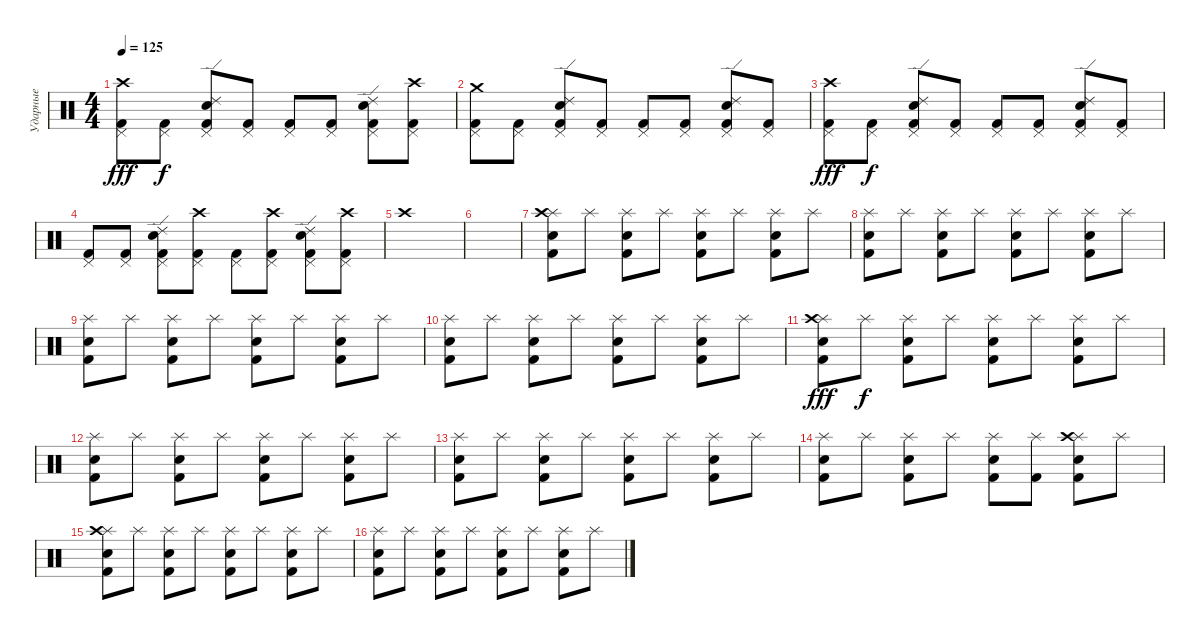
\track ("Ударные" "Ударные") {instrument percussion}
\staff {score}
\articulation defaults
\ts (4 4)
\tempo 125
\clef neutral
\ks c
("Crash high (hit)" "Pedal Hi-Hat (hit)" "Kick (hit) 2").8{dy fff} ("Pedal Hi-Hat (hit)" "Kick (hit) 2").8{dy f} ("Electric Snare (hit)" "Ride (edge) 2" "Pedal Hi-Hat (hit)" "Kick (hit) 2").8 ("Pedal Hi-Hat (hit)" "Kick (hit) 2").8 ("Pedal Hi-Hat (hit)" "Kick (hit) 2").8 ("Pedal Hi-Hat (hit)" "Kick (hit) 2").8 ("Electric Snare (hit)" "Ride (edge) 2" "Pedal Hi-Hat (hit)" "Kick (hit) 2").8 ("Crash high (hit)" "Pedal Hi-Hat (hit)" "Kick (hit) 2").8 |
("Crash medium (hit)" "Pedal Hi-Hat (hit)" "Kick (hit) 2").8 ("Pedal Hi-Hat (hit)" "Kick (hit) 2").8 ("Electric Snare (hit)" "Ride (edge) 2" "Pedal Hi-Hat (hit)" "Kick (hit) 2").8 ("Pedal Hi-Hat (hit)" "Kick (hit) 2").8 ("Pedal Hi-Hat (hit)" "Kick (hit) 2").8 ("Pedal Hi-Hat (hit)" "Kick (hit) 2").8 ("Electric Snare (hit)" "Ride (edge) 2" "Pedal Hi-Hat (hit)" "Kick (hit) 2").8 ("Pedal Hi-Hat (hit)" "Kick (hit) 2").8 |
("Crash high (hit)" "Pedal Hi-Hat (hit)" "Kick (hit) 2").8{dy fff} ("Pedal Hi-Hat (hit)" "Kick (hit) 2").8{dy f} ("Electric Snare (hit)" "Ride (edge) 2" "Pedal Hi-Hat (hit)" "Kick (hit) 2").8 ("Pedal Hi-Hat (hit)" "Kick (hit) 2").8 ("Pedal Hi-Hat (hit)" "Kick (hit) 2").8 ("Pedal Hi-Hat (hit)" "Kick (hit) 2").8 ("Electric Snare (hit)" "Ride (edge) 2" "Pedal Hi-Hat (hit)" "Kick (hit) 2").8 ("Pedal Hi-Hat (hit)" "Kick (hit) 2").8 |
("Pedal Hi-Hat (hit)" "Kick (hit) 2").8 ("Pedal Hi-Hat (hit)" "Kick (hit) 2").8 ("Electric Snare (hit)" "Ride (edge) 2" "Pedal Hi-Hat (hit)" "Kick (hit) 2").8 ("Crash high (hit)" "Pedal Hi-Hat (hit)" "Kick (hit) 2").8 ("Pedal Hi-Hat (hit)" "Kick (hit) 2").8 ("Crash high (hit)" "Pedal Hi-Hat (hit)" "Kick (hit) 2").8 ("Electric Snare (hit)" "Ride (edge) 2" "Pedal Hi-Hat (hit)" "Kick (hit) 2").8 ("Crash high (hit)" "Pedal Hi-Hat (hit)" "Kick (hit) 2").8 |
"Crash high (hit)".1 |
|
("Snare (hit) 2" "Splash (hit)" "Crash high (hit)" "Kick (hit) 2").8{volume 16} "Splash (hit)".8 ("Electric Snare (hit)" "Splash (hit)" "Kick (hit) 2").8 "Splash (hit)".8 ("Snare (hit) 2" "Splash (hit)" "Kick (hit) 2").8 "Splash (hit)".8 ("Electric Snare (hit)" "Splash (hit)" "Kick (hit) 2").8 "Splash (hit)".8 |
("Snare (hit) 2" "Splash (hit)" "Kick (hit) 2").8 "Splash (hit)".8 ("Electric Snare (hit)" "Splash (hit)" "Kick (hit) 2").8 "Splash (hit)".8 ("Snare (hit) 2" "Splash (hit)" "Kick (hit) 2").8 "Splash (hit)".8 ("Electric Snare (hit)" "Splash (hit)" "Kick (hit) 2").8 "Splash (hit)".8 |
("Snare (hit) 2" "Splash (hit)" "Kick (hit) 2").8 "Splash (hit)".8 ("Electric Snare (hit)" "Splash (hit)" "Kick (hit) 2").8 "Splash (hit)".8 ("Snare (hit) 2" "Splash (hit)" "Kick (hit) 2").8 "Splash (hit)".8 ("Electric Snare (hit)" "Splash (hit)" "Kick (hit) 2").8 "Splash (hit)".8 |
("Snare (hit) 2" "Splash (hit)" "Kick (hit) 2").8 "Splash (hit)".8 ("Electric Snare (hit)" "Splash (hit)" "Kick (hit) 2").8 "Splash (hit)".8 ("Snare (hit) 2" "Splash (hit)" "Kick (hit) 2").8 "Splash (hit)".8 ("Electric Snare (hit)" "Splash (hit)" "Kick (hit) 2").8 "Splash (hit)".8 |
("Snare (hit) 2" "Splash (hit)" "Crash high (hit)" "Kick (hit) 2").8{dy fff} "Splash (hit)".8{dy f} ("Electric Snare (hit)" "Splash (hit)" "Kick (hit) 2").8 "Splash (hit)".8 ("Snare (hit) 2" "Splash (hit)" "Kick (hit) 2").8 "Splash (hit)".8 ("Electric Snare (hit)" "Splash (hit)" "Kick (hit) 2").8 "Splash (hit)".8 |
("Snare (hit) 2" "Splash (hit)" "Kick (hit) 2").8 "Splash (hit)".8 ("Electric Snare (hit)" "Splash (hit)" "Kick (hit) 2").8 "Splash (hit)".8 ("Snare (hit) 2" "Splash (hit)" "Kick (hit) 2").8 "Splash (hit)".8 ("Electric Snare (hit)" "Splash (hit)" "Kick (hit) 2").8 "Splash (hit)".8 |
("Snare (hit) 2" "Splash (hit)" "Kick (hit) 2").8 "Splash (hit)".8 ("Electric Snare (hit)" "Splash (hit)" "Kick (hit) 2").8 "Splash (hit)".8 ("Snare (hit) 2" "Splash (hit)" "Kick (hit) 2").8 "Splash (hit)".8 ("Electric Snare (hit)" "Splash (hit)" "Kick (hit) 2").8 "Splash (hit)".8 |
("Snare (hit) 2" "Splash (hit)" "Kick (hit) 2").8 "Splash (hit)".8 ("Electric Snare (hit)" "Splash (hit)" "Kick (hit) 2").8 "Splash (hit)".8 ("Snare (hit) 2" "Splash (hit)" "Kick (hit) 2").8 ("Splash (hit)" "Kick (hit) 2").8 ("Electric Snare (hit)" "Splash (hit)" "Crash high (hit)" "Kick (hit) 2").8 "Splash (hit)".8 |
("Snare (hit) 2" "Splash (hit)" "Crash high (hit)" "Kick (hit) 2").8{volume 16} "Splash (hit)".8 ("Electric Snare (hit)" "Splash (hit)" "Kick (hit) 2").8 "Splash (hit)".8 ("Snare (hit) 2" "Splash (hit)" "Kick (hit) 2").8 "Splash (hit)".8 ("Electric Snare (hit)" "Splash (hit)" "Kick (hit) 2").8 "Splash (hit)".8 |
("Snare (hit) 2" "Splash (hit)" "Kick (hit) 2").8 "Splash (hit)".8 ("Electric Snare (hit)" "Splash (hit)" "Kick (hit) 2").8 "Splash (hit)".8 ("Snare (hit) 2" "Splash (hit)" "Kick (hit) 2").8 "Splash (hit)".8 ("Electric Snare (hit)" "Splash (hit)" "Kick (hit) 2").8 "Splash (hit)".8
